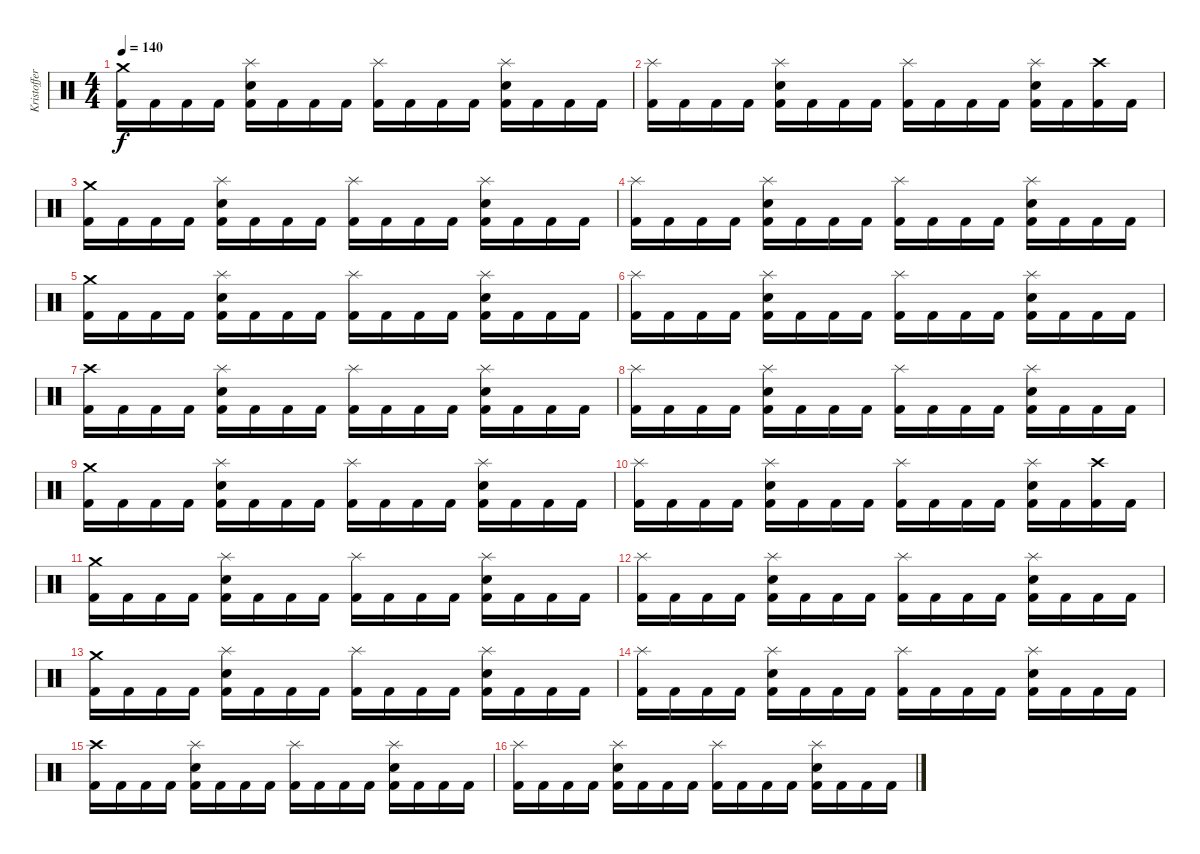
\track ("Kristoffer (Drums)" "Kristoffer") {instrument percussion}
\staff {score}
\articulation defaults
\ts (4 4)
\tempo 140
\clef neutral
\ks c
("Kick (hit) 2" "Crash medium (hit)").16{dy f} "Kick (hit) 2".16 "Kick (hit) 2".16 "Kick (hit) 2".16 ("Kick (hit) 2" "Electric Snare (hit)" "Splash (hit)").16 "Kick (hit) 2".16 "Kick (hit) 2".16 "Kick (hit) 2".16 ("Kick (hit) 2" "Splash (hit)").16 "Kick (hit) 2".16 "Kick (hit) 2".16 "Kick (hit) 2".16 ("Kick (hit) 2" "Electric Snare (hit)" "Splash (hit)").16 "Kick (hit) 2".16 "Kick (hit) 2".16 "Kick (hit) 2".16 |
("Kick (hit) 2" "Splash (hit)").16 "Kick (hit) 2".16 "Kick (hit) 2".16 "Kick (hit) 2".16 ("Kick (hit) 2" "Electric Snare (hit)" "Splash (hit)").16 "Kick (hit) 2".16 "Kick (hit) 2".16 "Kick (hit) 2".16 ("Kick (hit) 2" "Splash (hit)").16 "Kick (hit) 2".16 "Kick (hit) 2".16 "Kick (hit) 2".16 ("Kick (hit) 2" "Electric Snare (hit)" "Splash (hit)").16 "Kick (hit) 2".16 ("Kick (hit) 2" "Crash high (hit)").16 "Kick (hit) 2".16 |
("Kick (hit) 2" "Crash medium (hit)").16 "Kick (hit) 2".16 "Kick (hit) 2".16 "Kick (hit) 2".16 ("Kick (hit) 2" "Electric Snare (hit)" "Splash (hit)").16 "Kick (hit) 2".16 "Kick (hit) 2".16 "Kick (hit) 2".16 ("Kick (hit) 2" "Splash (hit)").16 "Kick (hit) 2".16 "Kick (hit) 2".16 "Kick (hit) 2".16 ("Kick (hit) 2" "Electric Snare (hit)" "Splash (hit)").16 "Kick (hit) 2".16 "Kick (hit) 2".16 "Kick (hit) 2".16 |
("Kick (hit) 2" "Splash (hit)").16 "Kick (hit) 2".16 "Kick (hit) 2".16 "Kick (hit) 2".16 ("Kick (hit) 2" "Electric Snare (hit)" "Splash (hit)").16 "Kick (hit) 2".16 "Kick (hit) 2".16 "Kick (hit) 2".16 ("Kick (hit) 2" "Splash (hit)").16 "Kick (hit) 2".16 "Kick (hit) 2".16 "Kick (hit) 2".16 ("Kick (hit) 2" "Electric Snare (hit)" "Splash (hit)").16 "Kick (hit) 2".16 "Kick (hit) 2".16 "Kick (hit) 2".16 |
("Kick (hit) 2" "Crash medium (hit)").16 "Kick (hit) 2".16 "Kick (hit) 2".16 "Kick (hit) 2".16 ("Kick (hit) 2" "Electric Snare (hit)" "Splash (hit)").16 "Kick (hit) 2".16 "Kick (hit) 2".16 "Kick (hit) 2".16 ("Kick (hit) 2" "Splash (hit)").16 "Kick (hit) 2".16 "Kick (hit) 2".16 "Kick (hit) 2".16 ("Kick (hit) 2" "Electric Snare (hit)" "Splash (hit)").16 "Kick (hit) 2".16 "Kick (hit) 2".16 "Kick (hit) 2".16 |
("Kick (hit) 2" "Splash (hit)").16 "Kick (hit) 2".16 "Kick (hit) 2".16 "Kick (hit) 2".16 ("Kick (hit) 2" "Electric Snare (hit)" "Splash (hit)").16 "Kick (hit) 2".16 "Kick (hit) 2".16 "Kick (hit) 2".16 ("Kick (hit) 2" "Splash (hit)").16 "Kick (hit) 2".16 "Kick (hit) 2".16 "Kick (hit) 2".16 ("Kick (hit) 2" "Electric Snare (hit)" "Splash (hit)").16 "Kick (hit) 2".16 "Kick (hit) 2".16 "Kick (hit) 2".16 |
("Kick (hit) 2" "Crash high (hit)").16 "Kick (hit) 2".16 "Kick (hit) 2".16 "Kick (hit) 2".16 ("Kick (hit) 2" "Electric Snare (hit)" "Splash (hit)").16 "Kick (hit) 2".16 "Kick (hit) 2".16 "Kick (hit) 2".16 ("Kick (hit) 2" "Splash (hit)").16 "Kick (hit) 2".16 "Kick (hit) 2".16 "Kick (hit) 2".16 ("Kick (hit) 2" "Electric Snare (hit)" "Splash (hit)").16 "Kick (hit) 2".16 "Kick (hit) 2".16 "Kick (hit) 2".16 |
("Kick (hit) 2" "Splash (hit)").16 "Kick (hit) 2".16 "Kick (hit) 2".16 "Kick (hit) 2".16 ("Kick (hit) 2" "Electric Snare (hit)" "Splash (hit)").16 "Kick (hit) 2".16 "Kick (hit) 2".16 "Kick (hit) 2".16 ("Kick (hit) 2" "Splash (hit)").16 "Kick (hit) 2".16 "Kick (hit) 2".16 "Kick (hit) 2".16 ("Kick (hit) 2" "Electric Snare (hit)" "Splash (hit)").16 "Kick (hit) 2".16 "Kick (hit) 2".16 "Kick (hit) 2".16 |
("Kick (hit) 2" "Crash medium (hit)").16 "Kick (hit) 2".16 "Kick (hit) 2".16 "Kick (hit) 2".16 ("Kick (hit) 2" "Electric Snare (hit)" "Splash (hit)").16 "Kick (hit) 2".16 "Kick (hit) 2".16 "Kick (hit) 2".16 ("Kick (hit) 2" "Splash (hit)").16 "Kick (hit) 2".16 "Kick (hit) 2".16 "Kick (hit) 2".16 ("Kick (hit) 2" "Electric Snare (hit)" "Splash (hit)").16 "Kick (hit) 2".16 "Kick (hit) 2".16 "Kick (hit) 2".16 |
("Kick (hit) 2" "Splash (hit)").16 "Kick (hit) 2".16 "Kick (hit) 2".16 "Kick (hit) 2".16 ("Kick (hit) 2" "Electric Snare (hit)" "Splash (hit)").16 "Kick (hit) 2".16 "Kick (hit) 2".16 "Kick (hit) 2".16 ("Kick (hit) 2" "Splash (hit)").16 "Kick (hit) 2".16 "Kick (hit) 2".16 "Kick (hit) 2".16 ("Kick (hit) 2" "Electric Snare (hit)" "Splash (hit)").16 "Kick (hit) 2".16 ("Kick (hit) 2" "Crash high (hit)").16 "Kick (hit) 2".16 |
("Kick (hit) 2" "Crash medium (hit)").16 "Kick (hit) 2".16 "Kick (hit) 2".16 "Kick (hit) 2".16 ("Kick (hit) 2" "Electric Snare (hit)" "Splash (hit)").16 "Kick (hit) 2".16 "Kick (hit) 2".16 "Kick (hit) 2".16 ("Kick (hit) 2" "Splash (hit)").16 "Kick (hit) 2".16 "Kick (hit) 2".16 "Kick (hit) 2".16 ("Kick (hit) 2" "Electric Snare (hit)" "Splash (hit)").16 "Kick (hit) 2".16 "Kick (hit) 2".16 "Kick (hit) 2".16 |
("Kick (hit) 2" "Splash (hit)").16 "Kick (hit) 2".16 "Kick (hit) 2".16 "Kick (hit) 2".16 ("Kick (hit) 2" "Electric Snare (hit)" "Splash (hit)").16 "Kick (hit) 2".16 "Kick (hit) 2".16 "Kick (hit) 2".16 ("Kick (hit) 2" "Splash (hit)").16 "Kick (hit) 2".16 "Kick (hit) 2".16 "Kick (hit) 2".16 ("Kick (hit) 2" "Electric Snare (hit)" "Splash (hit)").16 "Kick (hit) 2".16 "Kick (hit) 2".16 "Kick (hit) 2".16 |
("Kick (hit) 2" "Crash medium (hit)").16 "Kick (hit) 2".16 "Kick (hit) 2".16 "Kick (hit) 2".16 ("Kick (hit) 2" "Electric Snare (hit)" "Splash (hit)").16 "Kick (hit) 2".16 "Kick (hit) 2".16 "Kick (hit) 2".16 ("Kick (hit) 2" "Splash (hit)").16 "Kick (hit) 2".16 "Kick (hit) 2".16 "Kick (hit) 2".16 ("Kick (hit) 2" "Electric Snare (hit)" "Splash (hit)").16 "Kick (hit) 2".16 "Kick (hit) 2".16 "Kick (hit) 2".16 |
("Kick (hit) 2" "Splash (hit)").16 "Kick (hit) 2".16 "Kick (hit) 2".16 "Kick (hit) 2".16 ("Kick (hit) 2" "Electric Snare (hit)" "Splash (hit)").16 "Kick (hit) 2".16 "Kick (hit) 2".16 "Kick (hit) 2".16 ("Kick (hit) 2" "Splash (hit)").16 "Kick (hit) 2".16 "Kick (hit) 2".16 "Kick (hit) 2".16 ("Kick (hit) 2" "Electric Snare (hit)" "Splash (hit)").16 "Kick (hit) 2".16 "Kick (hit) 2".16 "Kick (hit) 2".16 |
("Kick (hit) 2" "Crash high (hit)").16 "Kick (hit) 2".16 "Kick (hit) 2".16 "Kick (hit) 2".16 ("Kick (hit) 2" "Electric Snare (hit)" "Splash (hit)").16 "Kick (hit) 2".16 "Kick (hit) 2".16 "Kick (hit) 2".16 ("Kick (hit) 2" "Splash (hit)").16 "Kick (hit) 2".16 "Kick (hit) 2".16 "Kick (hit) 2".16 ("Kick (hit) 2" "Electric Snare (hit)" "Splash (hit)").16 "Kick (hit) 2".16 "Kick (hit) 2".16 "Kick (hit) 2".16 |
("Kick (hit) 2" "Splash (hit)").16 "Kick (hit) 2".16 "Kick (hit) 2".16 "Kick (hit) 2".16 ("Kick (hit) 2" "Electric Snare (hit)" "Splash (hit)").16 "Kick (hit) 2".16 "Kick (hit) 2".16 "Kick (hit) 2".16 ("Kick (hit) 2" "Splash (hit)").16 "Kick (hit) 2".16 "Kick (hit) 2".16 "Kick (hit) 2".16 ("Kick (hit) 2" "Electric Snare (hit)" "Splash (hit)").16 "Kick (hit) 2".16 "Kick (hit) 2".16 "Kick (hit) 2".16
